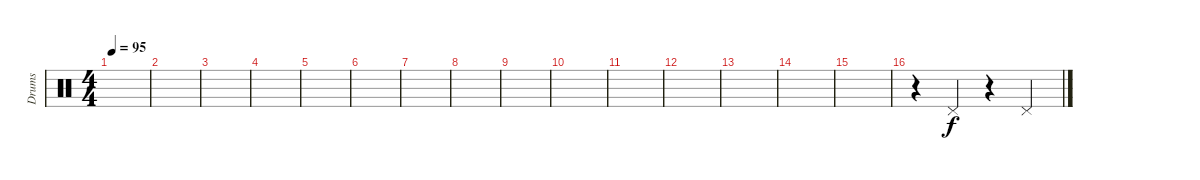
\track ("Drums" "Drums") {instrument percussion}
\staff {score}
\articulation defaults
\ts (4 4)
\tempo 95
\clef neutral
\ks c
|
|
|
|
|
|
|
|
|
|
|
|
|
|
|
r.4 "Pedal Hi-Hat (hit)".4 r.4 "Pedal Hi-Hat (hit)".4
